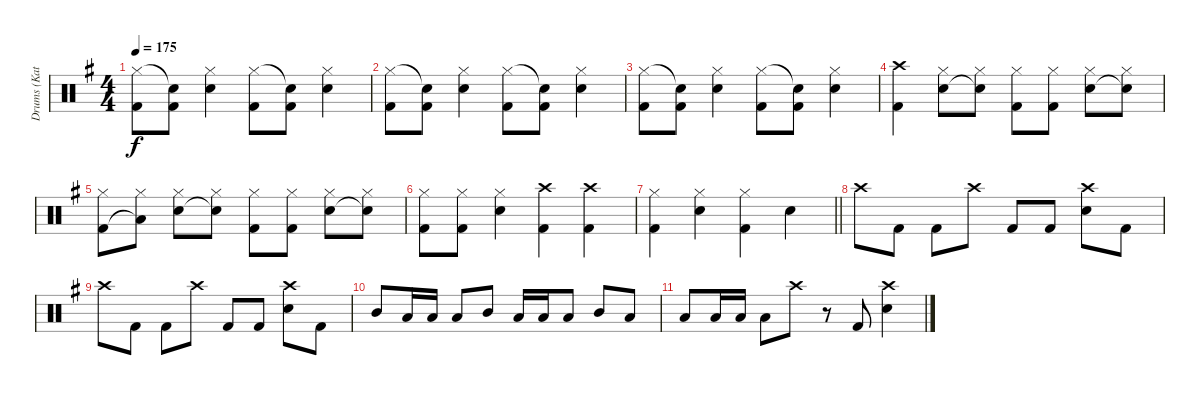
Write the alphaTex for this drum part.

\track ("Drums (Katsuji)" "Drums (Kat") {instrument percussion}
\staff {score}
\articulation defaults
\ts (4 4)
\tempo 175
\clef neutral
\ks g
("Hi-Hat (closed)" "Kick (hit) 2").8{dy f} ("Snare (hit)"{t} "Kick (hit) 2").8 ("Hi-Hat (closed)" "Snare (hit) 2").4 ("Hi-Hat (closed)" "Kick (hit) 2").8 ("Snare (hit)"{t} "Kick (hit) 2").8 ("Hi-Hat (closed)" "Snare (hit) 2").4 |
("Hi-Hat (closed)" "Kick (hit) 2").8 ("Snare (hit)"{t} "Kick (hit) 2").8 ("Hi-Hat (closed)" "Snare (hit) 2").4 ("Hi-Hat (closed)" "Kick (hit) 2").8 ("Snare (hit)"{t} "Kick (hit) 2").8 ("Hi-Hat (closed)" "Snare (hit) 2").4 |
("Hi-Hat (closed)" "Kick (hit) 2").8 ("Snare (hit)"{t} "Kick (hit) 2").8 ("Hi-Hat (closed)" "Snare (hit) 2").4 ("Hi-Hat (closed)" "Kick (hit) 2").8 ("Snare (hit)"{t} "Kick (hit) 2").8 ("Hi-Hat (closed)" "Snare (hit) 2").4 |
("Crash high (hit)" "Kick (hit) 2").4 ("Hi-Hat (closed)" "Snare (hit) 2").8 ("Hi-Hat (closed)" "Snare (hit)"{t}).8 ("Hi-Hat (closed)" "Kick (hit) 2").8 ("Hi-Hat (closed)" "Kick (hit) 2").8 ("Hi-Hat (closed)" "Snare (hit) 2").8 ("Hi-Hat (closed)" "Snare (hit)"{t}).8 |
("Hi-Hat (closed)" "Kick (hit) 2").8 ("Hi-Hat (closed)" "Low Floor Tom (hit)"{t}).8 ("Hi-Hat (closed)" "Snare (hit) 2").8 ("Hi-Hat (closed)" "Snare (hit)"{t}).8 ("Hi-Hat (closed)" "Kick (hit) 2").8 ("Hi-Hat (closed)" "Kick (hit) 2").8 ("Hi-Hat (closed)" "Snare (hit) 2").8 ("Hi-Hat (closed)" "Snare (hit)"{t}).8 |
("Hi-Hat (closed)" "Kick (hit) 2").8 ("Hi-Hat (closed)" "Kick (hit) 2").8 ("Hi-Hat (closed)" "Snare (hit) 2").4 ("Crash high (hit)" "Kick (hit) 2").4 ("Crash high (hit)" "Kick (hit) 2").4 |
\barLineRight lightlight
("Hi-Hat (closed)" "Kick (hit) 2").4 ("Hi-Hat (closed)" "Snare (hit) 2").4 ("Hi-Hat (closed)" "Kick (hit) 2").4 "Snare (hit) 2".4 |
"Crash high (hit)".8 "Kick (hit) 2".8 "Kick (hit) 2".8 "Crash high (hit)".8 "Kick (hit) 2".8 "Kick (hit) 2".8 ("Crash high (hit)" "Snare (hit) 2").8 "Kick (hit) 2".8 |
"Crash high (hit)".8 "Kick (hit) 2".8 "Kick (hit) 2".8 "Crash high (hit)".8 "Kick (hit) 2".8 "Kick (hit) 2".8 ("Crash high (hit)" "Snare (hit) 2").8 "Kick (hit) 2".8 |
"Mid Tom (hit)".8 "Low Tom (hit)".16 "Low Tom (hit)".16 "Low Tom (hit)".8 "Mid Tom (hit)".8 "Low Tom (hit)".16 "Low Tom (hit)".16 "Low Tom (hit)".8 "Mid Tom (hit)".8 "Low Tom (hit)".8 |
"Low Tom (hit)".8 "Low Tom (hit)".16 "Low Tom (hit)".16 "Low Tom (hit)".8 "Crash high (hit)".8 r.8 "Kick (hit) 2".8 ("Crash high (hit)" "Snare (hit) 2").4
